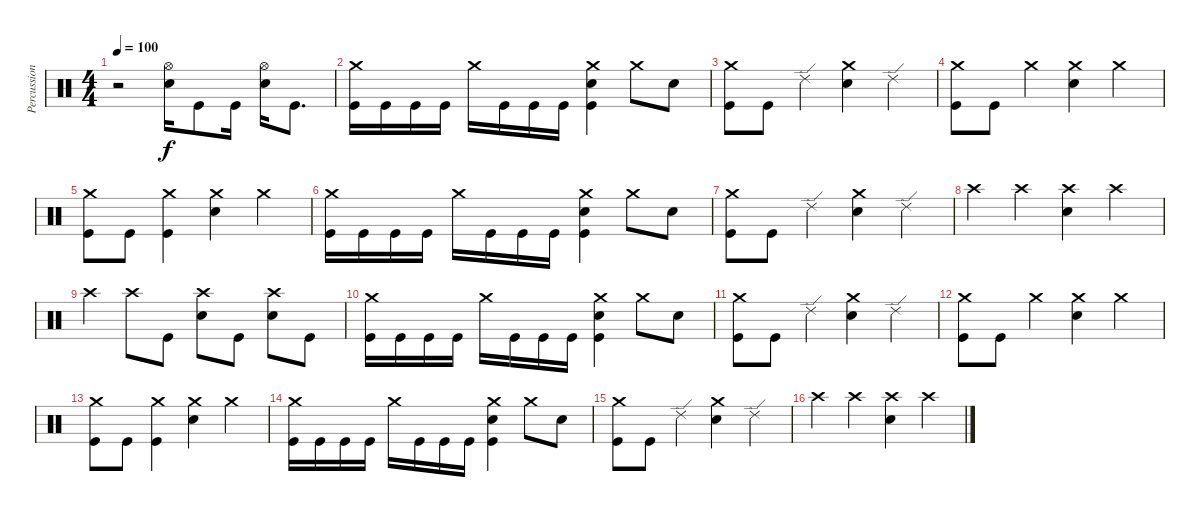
\track ("Percussions" "Percussion") {instrument percussion}
\staff {score}
\articulation defaults
\ts (4 4)
\tempo 100
\clef neutral
\ks c
r.2{dy f} ("Hi-Hat (open)" "Snare (hit) 2").16 "Kick (hit)".8 "Kick (hit)".16 ("Hi-Hat (open)" "Snare (hit) 2").16 "Kick (hit)".8{d} |
("Crash medium (hit)" "Kick (hit)").16 "Kick (hit)".16 "Kick (hit)".16 "Kick (hit)".16 "Crash medium (hit)".16 "Kick (hit)".16 "Kick (hit)".16 "Kick (hit)".16 ("Crash medium (hit)" "Snare (hit) 2" "Kick (hit)").4 "Crash medium (hit)".8 "Snare (hit) 2".8 |
("Crash medium (hit)" "Kick (hit)").8 "Kick (hit)".8 "Ride (edge) 2".4 ("Crash medium (hit)" "Snare (hit) 2").4 "Ride (edge) 2".4 |
("Crash medium (hit)" "Kick (hit)").8 "Kick (hit)".8 "Crash medium (hit)".4 ("Crash medium (hit)" "Snare (hit) 2").4 "Crash medium (hit)".4 |
("Crash medium (hit)" "Kick (hit)").8 "Kick (hit)".8 ("Crash medium (hit)" "Kick (hit)").4 ("Crash medium (hit)" "Snare (hit) 2").4 "Crash medium (hit)".4 |
("Crash medium (hit)" "Kick (hit)").16 "Kick (hit)".16 "Kick (hit)".16 "Kick (hit)".16 "Crash medium (hit)".16 "Kick (hit)".16 "Kick (hit)".16 "Kick (hit)".16 ("Crash medium (hit)" "Snare (hit) 2" "Kick (hit)").4 "Crash medium (hit)".8 "Snare (hit) 2".8 |
("Crash medium (hit)" "Kick (hit)").8 "Kick (hit)".8 "Ride (edge) 2".4 ("Crash medium (hit)" "Snare (hit) 2").4 "Ride (edge) 2".4 |
"Crash high (hit)".4 "Crash high (hit)".4 ("Crash high (hit)" "Snare (hit) 2").4 "Crash high (hit)".4 |
"Crash high (hit)".4 "Crash high (hit)".8 "Kick (hit)".8 ("Crash high (hit)" "Snare (hit) 2").8 "Kick (hit)".8 ("Crash high (hit)" "Snare (hit) 2").8 "Kick (hit)".8 |
("Crash medium (hit)" "Kick (hit)").16 "Kick (hit)".16 "Kick (hit)".16 "Kick (hit)".16 "Crash medium (hit)".16 "Kick (hit)".16 "Kick (hit)".16 "Kick (hit)".16 ("Crash medium (hit)" "Snare (hit) 2" "Kick (hit)").4 "Crash medium (hit)".8 "Snare (hit) 2".8 |
("Crash medium (hit)" "Kick (hit)").8 "Kick (hit)".8 "Ride (edge) 2".4 ("Crash medium (hit)" "Snare (hit) 2").4 "Ride (edge) 2".4 |
("Crash medium (hit)" "Kick (hit)").8 "Kick (hit)".8 "Crash medium (hit)".4 ("Crash medium (hit)" "Snare (hit) 2").4 "Crash medium (hit)".4 |
("Crash medium (hit)" "Kick (hit)").8 "Kick (hit)".8 ("Crash medium (hit)" "Kick (hit)").4 ("Crash medium (hit)" "Snare (hit) 2").4 "Crash medium (hit)".4 |
("Crash medium (hit)" "Kick (hit)").16 "Kick (hit)".16 "Kick (hit)".16 "Kick (hit)".16 "Crash medium (hit)".16 "Kick (hit)".16 "Kick (hit)".16 "Kick (hit)".16 ("Crash medium (hit)" "Snare (hit) 2" "Kick (hit)").4 "Crash medium (hit)".8 "Snare (hit) 2".8 |
("Crash medium (hit)" "Kick (hit)").8 "Kick (hit)".8 "Ride (edge) 2".4 ("Crash medium (hit)" "Snare (hit) 2").4 "Ride (edge) 2".4 |
"Crash high (hit)".4 "Crash high (hit)".4 ("Crash high (hit)" "Snare (hit) 2").4 "Crash high (hit)".4
